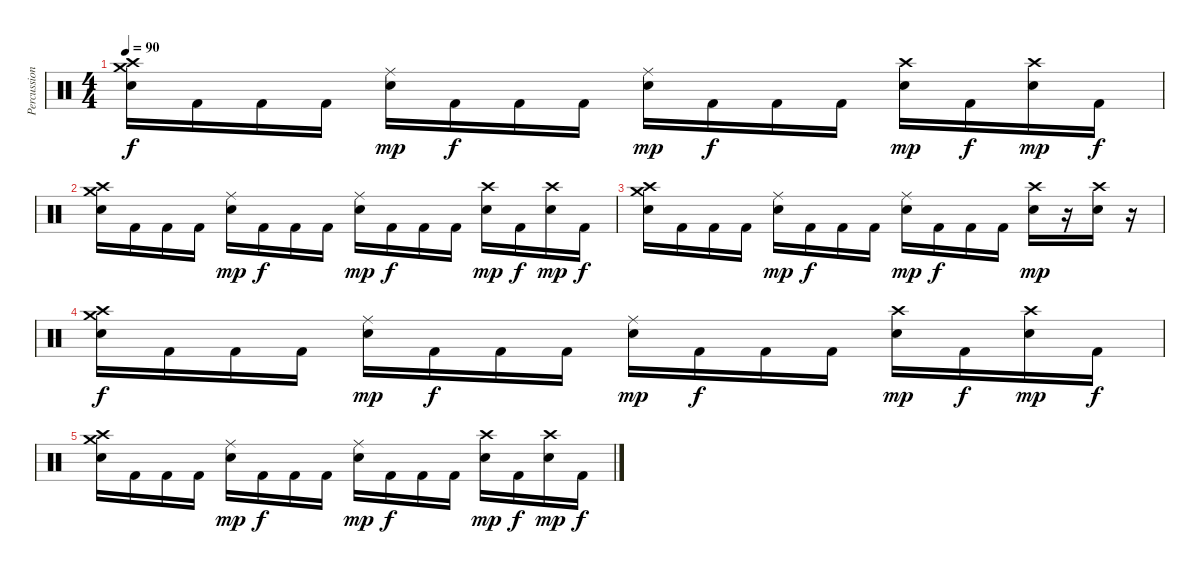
\track ("Percussion" "Percussion") {instrument percussion}
\staff {score}
\articulation defaults
\ts (4 4)
\tempo 90
\clef neutral
\ks c
("Crash high (hit)" "Crash medium (hit)" "Snare (hit) 2").16{dy f} "Kick (hit) 2".16 "Kick (hit) 2".16 "Kick (hit) 2".16 ("Ride (middle)" "Snare (hit) 2").16{dy mp} "Kick (hit) 2".16{dy f} "Kick (hit) 2".16 "Kick (hit) 2".16 ("Ride (middle)" "Snare (hit) 2").16{dy mp} "Kick (hit) 2".16{dy f} "Kick (hit) 2".16 "Kick (hit) 2".16 ("Crash high (hit)" "Snare (hit) 2").16{dy mp} "Kick (hit) 2".16{dy f} ("Crash high (hit)" "Snare (hit) 2").16{dy mp} "Kick (hit) 2".16{dy f} |
("Crash high (hit)" "Crash medium (hit)" "Snare (hit) 2").16 "Kick (hit) 2".16 "Kick (hit) 2".16 "Kick (hit) 2".16 ("Ride (middle)" "Snare (hit) 2").16{dy mp} "Kick (hit) 2".16{dy f} "Kick (hit) 2".16 "Kick (hit) 2".16 ("Ride (middle)" "Snare (hit) 2").16{dy mp} "Kick (hit) 2".16{dy f} "Kick (hit) 2".16 "Kick (hit) 2".16 ("Crash high (hit)" "Snare (hit) 2").16{dy mp} "Kick (hit) 2".16{dy f} ("Crash high (hit)" "Snare (hit) 2").16{dy mp} "Kick (hit) 2".16{dy f} |
("Crash high (hit)" "Crash medium (hit)" "Snare (hit) 2").16 "Kick (hit) 2".16 "Kick (hit) 2".16 "Kick (hit) 2".16 ("Ride (middle)" "Snare (hit) 2").16{dy mp} "Kick (hit) 2".16{dy f} "Kick (hit) 2".16 "Kick (hit) 2".16 ("Ride (middle)" "Snare (hit) 2").16{dy mp} "Kick (hit) 2".16{dy f} "Kick (hit) 2".16 "Kick (hit) 2".16 ("Crash high (hit)" "Snare (hit) 2").16{dy mp} r.16 ("Crash high (hit)" "Snare (hit) 2").16 r.16 |
("Crash high (hit)" "Crash medium (hit)" "Snare (hit) 2").16{dy f} "Kick (hit) 2".16 "Kick (hit) 2".16 "Kick (hit) 2".16 ("Ride (middle)" "Snare (hit) 2").16{dy mp} "Kick (hit) 2".16{dy f} "Kick (hit) 2".16 "Kick (hit) 2".16 ("Ride (middle)" "Snare (hit) 2").16{dy mp} "Kick (hit) 2".16{dy f} "Kick (hit) 2".16 "Kick (hit) 2".16 ("Crash high (hit)" "Snare (hit) 2").16{dy mp} "Kick (hit) 2".16{dy f} ("Crash high (hit)" "Snare (hit) 2").16{dy mp} "Kick (hit) 2".16{dy f} |
("Crash high (hit)" "Crash medium (hit)" "Snare (hit) 2").16 "Kick (hit) 2".16 "Kick (hit) 2".16 "Kick (hit) 2".16 ("Ride (middle)" "Snare (hit) 2").16{dy mp} "Kick (hit) 2".16{dy f} "Kick (hit) 2".16 "Kick (hit) 2".16 ("Ride (middle)" "Snare (hit) 2").16{dy mp} "Kick (hit) 2".16{dy f} "Kick (hit) 2".16 "Kick (hit) 2".16 ("Crash high (hit)" "Snare (hit) 2").16{dy mp} "Kick (hit) 2".16{dy f} ("Crash high (hit)" "Snare (hit) 2").16{dy mp} "Kick (hit) 2".16{dy f}
